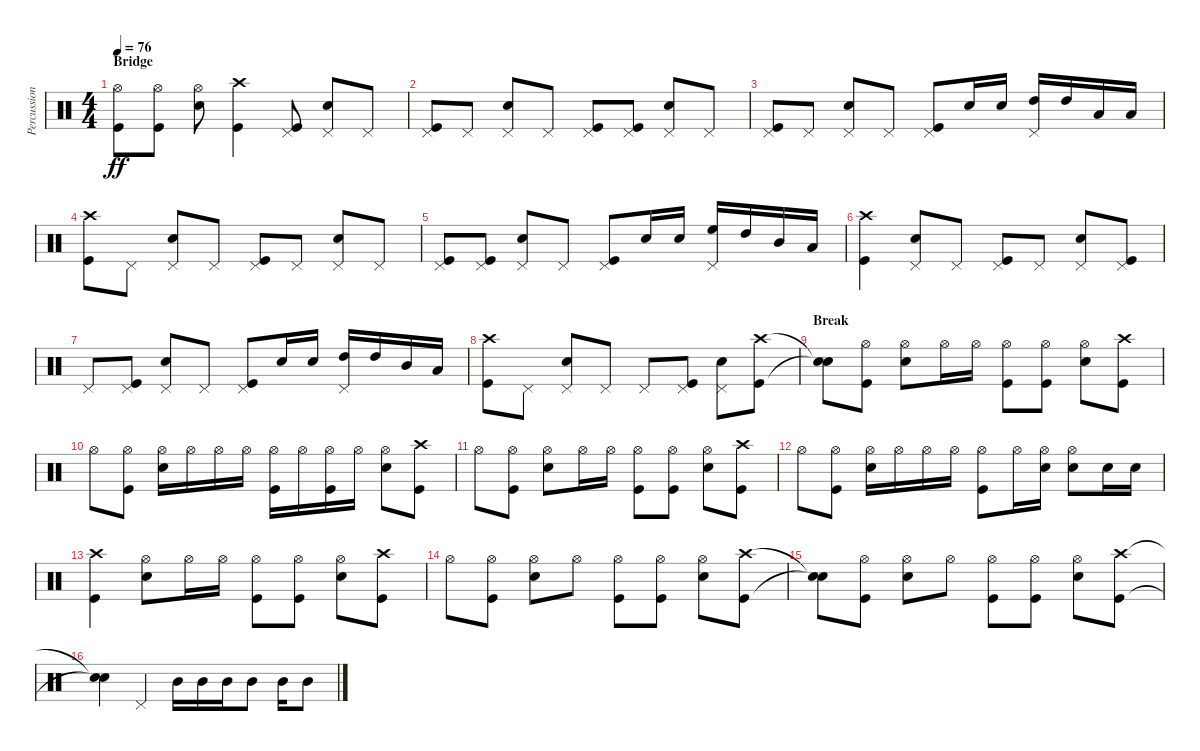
\track ("Percussion" "Percussion") {instrument percussion}
\staff {score}
\articulation defaults
\ts (4 4)
\section ("" "Bridge")
\tempo 76
\clef neutral
\ks c
("Hi-Hat (open)" "Kick (hit)").8{dy ff} ("Hi-Hat (open)" "Kick (hit)").8 ("Hi-Hat (open)" "Snare (hit) 2").8 ("Crash high (hit)" "Kick (hit)").4 ("Pedal Hi-Hat (hit)" "Kick (hit)").8 ("Pedal Hi-Hat (hit)" "Snare (hit) 2").8 "Pedal Hi-Hat (hit)".8 |
("Pedal Hi-Hat (hit)" "Kick (hit)").8 "Pedal Hi-Hat (hit)".8 ("Pedal Hi-Hat (hit)" "Snare (hit) 2").8 "Pedal Hi-Hat (hit)".8 ("Pedal Hi-Hat (hit)" "Kick (hit)").8 ("Pedal Hi-Hat (hit)" "Kick (hit)").8 ("Pedal Hi-Hat (hit)" "Snare (hit) 2").8 "Pedal Hi-Hat (hit)".8 |
("Pedal Hi-Hat (hit)" "Kick (hit)").8 "Pedal Hi-Hat (hit)".8 ("Pedal Hi-Hat (hit)" "Snare (hit) 2").8 "Pedal Hi-Hat (hit)".8 ("Pedal Hi-Hat (hit)" "Kick (hit)").8 "Snare (hit) 2".16 "Snare (hit) 2".16 ("Pedal Hi-Hat (hit)" "High Tom (hit)").16 "High Tom (hit)".16 "Low Tom (hit)".16 "Low Tom (hit)".16 |
("Crash high (hit)" "Kick (hit)").8 "Pedal Hi-Hat (hit)".8 ("Pedal Hi-Hat (hit)" "Snare (hit) 2").8 "Pedal Hi-Hat (hit)".8 ("Pedal Hi-Hat (hit)" "Kick (hit)").8 "Pedal Hi-Hat (hit)".8 ("Pedal Hi-Hat (hit)" "Snare (hit) 2").8 "Pedal Hi-Hat (hit)".8 |
("Pedal Hi-Hat (hit)" "Kick (hit)").8 ("Pedal Hi-Hat (hit)" "Kick (hit)").8 ("Pedal Hi-Hat (hit)" "Snare (hit) 2").8 "Pedal Hi-Hat (hit)".8 ("Pedal Hi-Hat (hit)" "Kick (hit)").8 "Snare (hit) 2".16 "Snare (hit) 2".16 ("Pedal Hi-Hat (hit)" "High Floor Tom (hit)").16 "High Tom (hit)".16 "Mid Tom (hit)".16 "Low Tom (hit)".16 |
("Crash high (hit)" "Kick (hit)").4 ("Pedal Hi-Hat (hit)" "Snare (hit) 2").8 "Pedal Hi-Hat (hit)".8 ("Pedal Hi-Hat (hit)" "Kick (hit)").8 "Pedal Hi-Hat (hit)".8 ("Pedal Hi-Hat (hit)" "Snare (hit) 2").8 ("Pedal Hi-Hat (hit)" "Kick (hit)").8 |
"Pedal Hi-Hat (hit)".8 ("Pedal Hi-Hat (hit)" "Kick (hit)").8 ("Pedal Hi-Hat (hit)" "Snare (hit) 2").8 "Pedal Hi-Hat (hit)".8 ("Pedal Hi-Hat (hit)" "Kick (hit)").8 "Snare (hit) 2".16 "Snare (hit) 2".16 ("Pedal Hi-Hat (hit)" "High Tom (hit)").16 "High Tom (hit)".16 "Mid Tom (hit)".16 "Low Tom (hit)".16 |
("Crash high (hit)" "Kick (hit)").8 "Pedal Hi-Hat (hit)".8 ("Pedal Hi-Hat (hit)" "Snare (hit) 2").8 "Pedal Hi-Hat (hit)".8 "Pedal Hi-Hat (hit)".8 ("Pedal Hi-Hat (hit)" "Kick (hit)").8 ("Pedal Hi-Hat (hit)" "Snare (hit) 2").8 ("Crash high (hit)" "Kick (hit)").8 |
\section ("" "Break")
("Snare (hit)"{t} "Snare (hit)"{t}).8 ("Hi-Hat (open)" "Kick (hit)").8 ("Hi-Hat (open)" "Snare (hit) 2").8 "Hi-Hat (open)".16 "Hi-Hat (open)".16 ("Hi-Hat (open)" "Kick (hit)").8 ("Hi-Hat (open)" "Kick (hit)").8 ("Hi-Hat (open)" "Snare (hit) 2").8 ("Crash high (hit)" "Kick (hit)").8 |
"Hi-Hat (open)".8 ("Hi-Hat (open)" "Kick (hit)").8 ("Hi-Hat (open)" "Snare (hit) 2").16 "Hi-Hat (open)".16 "Hi-Hat (open)".16 "Hi-Hat (open)".16 ("Hi-Hat (open)" "Kick (hit)").16 "Hi-Hat (open)".16 ("Hi-Hat (open)" "Kick (hit)").16 "Hi-Hat (open)".16 ("Hi-Hat (open)" "Snare (hit) 2").8 ("Crash high (hit)" "Kick (hit)").8 |
"Hi-Hat (open)".8 ("Hi-Hat (open)" "Kick (hit)").8 ("Hi-Hat (open)" "Snare (hit) 2").8 "Hi-Hat (open)".16 "Hi-Hat (open)".16 ("Hi-Hat (open)" "Kick (hit)").8 ("Hi-Hat (open)" "Kick (hit)").8 ("Hi-Hat (open)" "Snare (hit) 2").8 ("Crash high (hit)" "Kick (hit)").8 |
"Hi-Hat (open)".8 ("Hi-Hat (open)" "Kick (hit)").8 ("Hi-Hat (open)" "Snare (hit) 2").16 "Hi-Hat (open)".16 "Hi-Hat (open)".16 "Hi-Hat (open)".16 ("Hi-Hat (open)" "Kick (hit)").8 "Hi-Hat (open)".16 ("Hi-Hat (open)" "Snare (hit) 2").16 ("Hi-Hat (open)" "Snare (hit) 2").8 "Snare (hit) 2".16 "Snare (hit) 2".16 |
("Crash high (hit)" "Kick (hit)").4 ("Hi-Hat (open)" "Snare (hit) 2").8 "Hi-Hat (open)".16 "Hi-Hat (open)".16 ("Hi-Hat (open)" "Kick (hit)").8 ("Hi-Hat (open)" "Kick (hit)").8 ("Hi-Hat (open)" "Snare (hit) 2").8 ("Crash high (hit)" "Kick (hit)").8 |
"Hi-Hat (open)".8 ("Hi-Hat (open)" "Kick (hit)").8 ("Hi-Hat (open)" "Snare (hit) 2").8 "Hi-Hat (open)".8 ("Hi-Hat (open)" "Kick (hit)").8 ("Hi-Hat (open)" "Kick (hit)").8 ("Hi-Hat (open)" "Snare (hit) 2").8 ("Crash high (hit)" "Kick (hit)").8 |
("Snare (hit)"{t} "Snare (hit)"{t}).8 ("Hi-Hat (open)" "Kick (hit)").8 ("Hi-Hat (open)" "Snare (hit) 2").8 "Hi-Hat (open)".8 ("Hi-Hat (open)" "Kick (hit)").8 ("Hi-Hat (open)" "Kick (hit)").8 ("Hi-Hat (open)" "Snare (hit) 2").8 ("Crash high (hit)" "Kick (hit)").8 |
("Snare (hit)"{t} "Snare (hit)"{t}).4 "Pedal Hi-Hat (hit)".4 "Mid Tom (hit)".16 "Mid Tom (hit)".16 "Mid Tom (hit)".16 "Mid Tom (hit)".8 "Mid Tom (hit)".16 "Mid Tom (hit)".8
